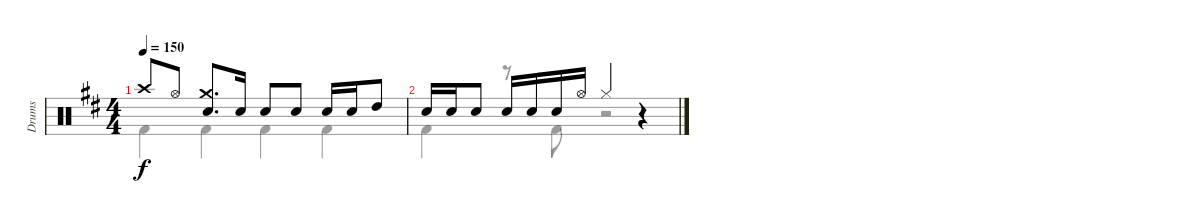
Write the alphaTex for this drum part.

\track ("Drums" "Drums") {instrument percussion}
\staff {score}
\articulation defaults
\voice
\ts (4 4)
\tempo 150
\clef neutral
\ks d "Crash high (hit)".8{dy f} "Hi-Hat (open)".8
("Crash medium (hit)" "Snare (hit) 2").8{d} "Snare (hit) 2".16 "Snare (hit) 2".8 "Snare (hit) 2".8 "Snare (hit) 2".16 "Snare (hit) 2".16 "High Tom (hit)".8 |
"Snare (hit) 2".16 "Snare (hit) 2".16 "Snare (hit) 2".8 "Snare (hit) 2".16 "Snare (hit) 2".16 "Snare (hit) 2".16 "Hi-Hat (open)".16 "Hi-Hat (closed)".4 r.4
\voice
\clef neutral
\ottava regular
\simile none
\ks d "Kick (hit) 2".4{dy f} "Kick (hit) 2".4 "Kick (hit) 2".4 "Kick (hit) 2".4
|
"Kick (hit) 2".4 r.8 "Kick (hit) 2".8 r.2
